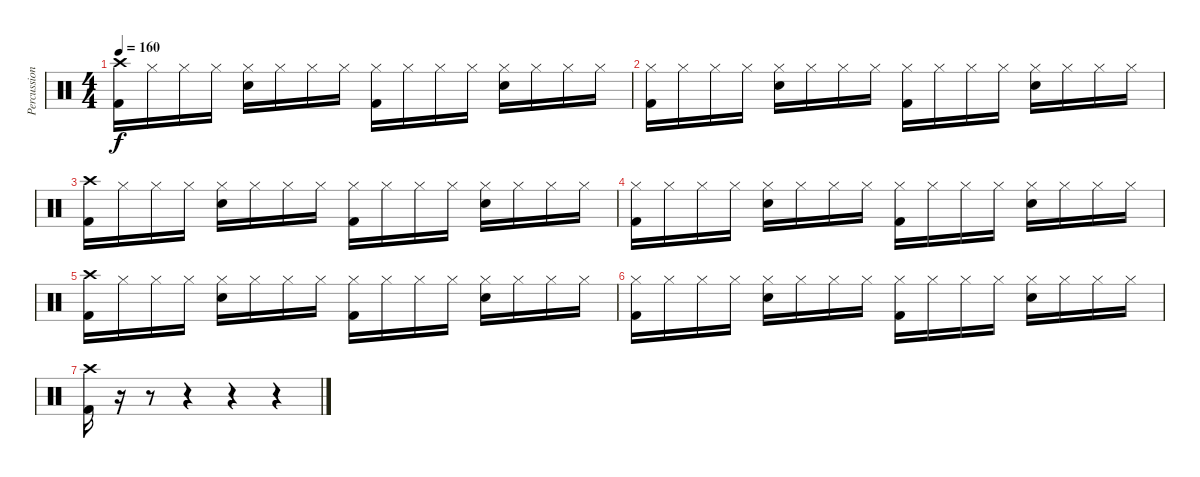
\track ("Percussion" "Percussion") {instrument percussion}
\staff {score}
\articulation defaults
\ts (4 4)
\tempo 160
\clef neutral
\ks c
("Crash high (hit)" "Kick (hit) 2").16{dy f} "Hi-Hat (closed)".16 "Hi-Hat (closed)".16 "Hi-Hat (closed)".16 ("Hi-Hat (closed)" "Snare (hit) 2").16 "Hi-Hat (closed)".16 "Hi-Hat (closed)".16 "Hi-Hat (closed)".16 ("Hi-Hat (closed)" "Kick (hit) 2").16 "Hi-Hat (closed)".16 "Hi-Hat (closed)".16 "Hi-Hat (closed)".16 ("Hi-Hat (closed)" "Snare (hit) 2").16 "Hi-Hat (closed)".16 "Hi-Hat (closed)".16 "Hi-Hat (closed)".16 |
("Hi-Hat (closed)" "Kick (hit) 2").16 "Hi-Hat (closed)".16 "Hi-Hat (closed)".16 "Hi-Hat (closed)".16 ("Hi-Hat (closed)" "Snare (hit) 2").16 "Hi-Hat (closed)".16 "Hi-Hat (closed)".16 "Hi-Hat (closed)".16 ("Hi-Hat (closed)" "Kick (hit) 2").16 "Hi-Hat (closed)".16 "Hi-Hat (closed)".16 "Hi-Hat (closed)".16 ("Hi-Hat (closed)" "Snare (hit) 2").16 "Hi-Hat (closed)".16 "Hi-Hat (closed)".16 "Hi-Hat (closed)".16 |
("Crash high (hit)" "Kick (hit) 2").16 "Hi-Hat (closed)".16 "Hi-Hat (closed)".16 "Hi-Hat (closed)".16 ("Hi-Hat (closed)" "Snare (hit) 2").16 "Hi-Hat (closed)".16 "Hi-Hat (closed)".16 "Hi-Hat (closed)".16 ("Hi-Hat (closed)" "Kick (hit) 2").16 "Hi-Hat (closed)".16 "Hi-Hat (closed)".16 "Hi-Hat (closed)".16 ("Hi-Hat (closed)" "Snare (hit) 2").16 "Hi-Hat (closed)".16 "Hi-Hat (closed)".16 "Hi-Hat (closed)".16 |
("Hi-Hat (closed)" "Kick (hit) 2").16 "Hi-Hat (closed)".16 "Hi-Hat (closed)".16 "Hi-Hat (closed)".16 ("Hi-Hat (closed)" "Snare (hit) 2").16 "Hi-Hat (closed)".16 "Hi-Hat (closed)".16 "Hi-Hat (closed)".16 ("Hi-Hat (closed)" "Kick (hit) 2").16 "Hi-Hat (closed)".16 "Hi-Hat (closed)".16 "Hi-Hat (closed)".16 ("Hi-Hat (closed)" "Snare (hit) 2").16 "Hi-Hat (closed)".16 "Hi-Hat (closed)".16 "Hi-Hat (closed)".16 |
("Crash high (hit)" "Kick (hit) 2").16 "Hi-Hat (closed)".16 "Hi-Hat (closed)".16 "Hi-Hat (closed)".16 ("Hi-Hat (closed)" "Snare (hit) 2").16 "Hi-Hat (closed)".16 "Hi-Hat (closed)".16 "Hi-Hat (closed)".16 ("Hi-Hat (closed)" "Kick (hit) 2").16 "Hi-Hat (closed)".16 "Hi-Hat (closed)".16 "Hi-Hat (closed)".16 ("Hi-Hat (closed)" "Snare (hit) 2").16 "Hi-Hat (closed)".16 "Hi-Hat (closed)".16 "Hi-Hat (closed)".16 |
("Hi-Hat (closed)" "Kick (hit) 2").16 "Hi-Hat (closed)".16 "Hi-Hat (closed)".16 "Hi-Hat (closed)".16 ("Hi-Hat (closed)" "Snare (hit) 2").16 "Hi-Hat (closed)".16 "Hi-Hat (closed)".16 "Hi-Hat (closed)".16 ("Hi-Hat (closed)" "Kick (hit) 2").16 "Hi-Hat (closed)".16 "Hi-Hat (closed)".16 "Hi-Hat (closed)".16 ("Hi-Hat (closed)" "Snare (hit) 2").16 "Hi-Hat (closed)".16 "Hi-Hat (closed)".16 "Hi-Hat (closed)".16 |
("Crash high (hit)" "Kick (hit) 2").16 r.16 r.8 r.4 r.4 r.4
